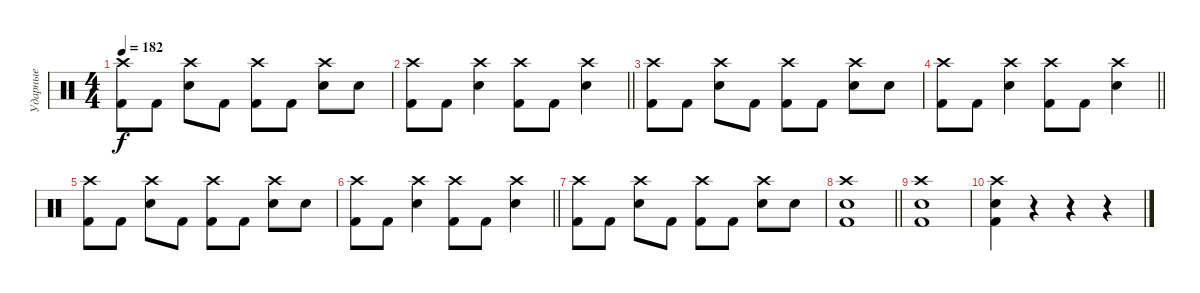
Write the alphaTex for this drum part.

\track ("Ударные" "Ударные") {instrument percussion}
\staff {score}
\articulation defaults
\ts (4 4)
\tempo 182
\clef neutral
\ks c
("Crash high (hit)" "Kick (hit) 2").8{dy f} "Kick (hit) 2".8 ("Crash high (hit)" "Snare (hit) 2").8 "Kick (hit) 2".8 ("Crash high (hit)" "Kick (hit) 2").8 "Kick (hit) 2".8 ("Crash high (hit)" "Snare (hit) 2").8 "Snare (hit) 2".8 |
\barLineRight lightlight
("Crash high (hit)" "Kick (hit) 2").8 "Kick (hit) 2".8 ("Crash high (hit)" "Snare (hit) 2").4 ("Crash high (hit)" "Kick (hit) 2").8 "Kick (hit) 2".8 ("Crash high (hit)" "Snare (hit) 2").4 |
("Crash high (hit)" "Kick (hit) 2").8 "Kick (hit) 2".8 ("Crash high (hit)" "Snare (hit) 2").8 "Kick (hit) 2".8 ("Crash high (hit)" "Kick (hit) 2").8 "Kick (hit) 2".8 ("Crash high (hit)" "Snare (hit) 2").8 "Snare (hit) 2".8 |
\barLineRight lightlight
("Crash high (hit)" "Kick (hit) 2").8 "Kick (hit) 2".8 ("Crash high (hit)" "Snare (hit) 2").4 ("Crash high (hit)" "Kick (hit) 2").8 "Kick (hit) 2".8 ("Crash high (hit)" "Snare (hit) 2").4 |
("Crash high (hit)" "Kick (hit) 2").8 "Kick (hit) 2".8 ("Crash high (hit)" "Snare (hit) 2").8 "Kick (hit) 2".8 ("Crash high (hit)" "Kick (hit) 2").8 "Kick (hit) 2".8 ("Crash high (hit)" "Snare (hit) 2").8 "Snare (hit) 2".8 |
\barLineRight lightlight
("Crash high (hit)" "Kick (hit) 2").8 "Kick (hit) 2".8 ("Crash high (hit)" "Snare (hit) 2").4 ("Crash high (hit)" "Kick (hit) 2").8 "Kick (hit) 2".8 ("Crash high (hit)" "Snare (hit) 2").4 |
("Crash high (hit)" "Kick (hit) 2").8 "Kick (hit) 2".8 ("Crash high (hit)" "Snare (hit) 2").8 "Kick (hit) 2".8 ("Crash high (hit)" "Kick (hit) 2").8 "Kick (hit) 2".8 ("Crash high (hit)" "Snare (hit) 2").8 "Snare (hit) 2".8 |
\barLineRight lightlight
("Crash high (hit)" "Snare (hit) 2" "Kick (hit) 2").1 |
("Crash high (hit)" "Snare (hit) 2" "Kick (hit) 2").1 |
("Crash high (hit)" "Snare (hit) 2" "Kick (hit) 2").4 r.4 r.4 r.4
